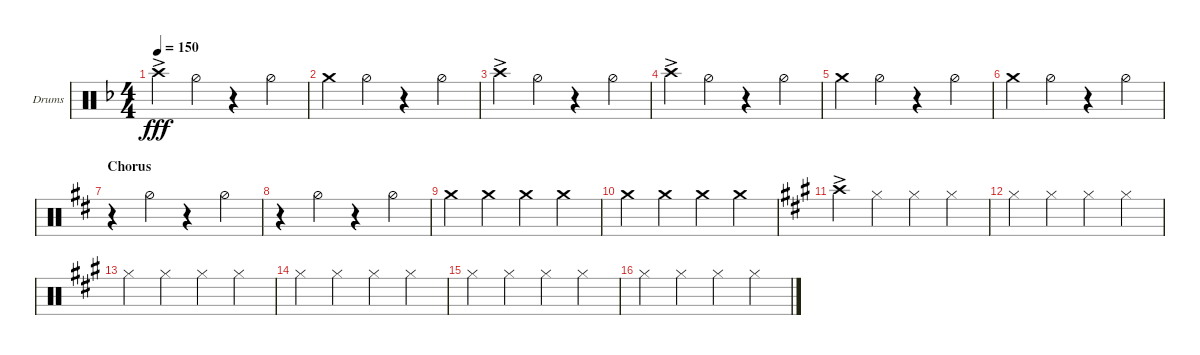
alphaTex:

\defaultSystemsLayout 4
\bracketExtendMode groupsimilarinstruments
\firstSystemTrackNameOrientation horizontal
\otherSystemsTrackNameOrientation horizontal
\track ("Drumkit" "Drums") {instrument percussion}
\staff {score}
\articulation defaults
\ts (4 4)
\tempo 150
\clef neutral
\ks f "Crash high (hit)"{ac}.4{dy fff} "Hi-Hat (half)".4
r.4 "Hi-Hat (half)".4 |
"Crash medium (hit)".4 "Hi-Hat (half)".4 r.4 "Hi-Hat (half)".4 |
"Crash high (hit)"{ac}.4 "Hi-Hat (half)".4 r.4 "Hi-Hat (half)".4 |
"Crash high (hit)"{ac}.4 "Hi-Hat (half)".4 r.4 "Hi-Hat (half)".4 |
"Crash medium (hit)".4 "Hi-Hat (half)".4 r.4 "Hi-Hat (half)".4 |
"Crash medium (hit)".4 "Hi-Hat (half)".4 r.4 "Hi-Hat (half)".4 |
\section ("" "Chorus")
\ks d
r.4 "Hi-Hat (half)".4 r.4 "Hi-Hat (half)".4 |
r.4 "Hi-Hat (half)".4 r.4 "Hi-Hat (half)".4 |
"Crash medium (hit)".4 "Crash medium (hit)".4 "Crash medium (hit)".4 "Crash medium (hit)".4 |
"Crash medium (hit)".4 "Crash medium (hit)".4 "Crash medium (hit)".4 "Crash medium (hit)".4 |
\ks a "Crash high (hit)"{ac}.4 "Hi-Hat (closed)".4 "Hi-Hat (closed)".4 "Hi-Hat (closed)".4
|
"Hi-Hat (closed)".4 "Hi-Hat (closed)".4 "Hi-Hat (closed)".4 "Hi-Hat (closed)".4 |
"Hi-Hat (closed)".4 "Hi-Hat (closed)".4 "Hi-Hat (closed)".4 "Hi-Hat (closed)".4 |
"Hi-Hat (closed)".4 "Hi-Hat (closed)".4 "Hi-Hat (closed)".4 "Hi-Hat (closed)".4 |
"Hi-Hat (closed)".4 "Hi-Hat (closed)".4 "Hi-Hat (closed)".4 "Hi-Hat (closed)".4 |
"Hi-Hat (closed)".4 "Hi-Hat (closed)".4 "Hi-Hat (closed)".4 "Hi-Hat (closed)".4
